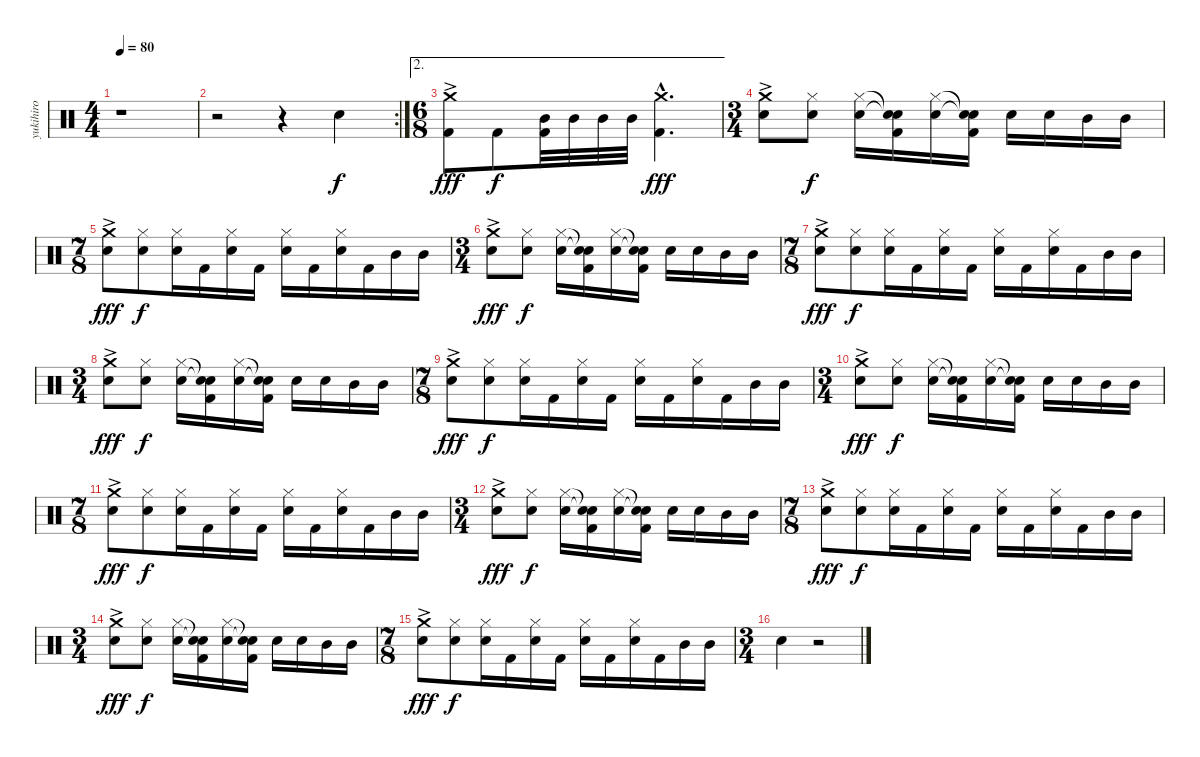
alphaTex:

\track ("yukihiro" "yukihiro") {instrument percussion}
\staff {score}
\articulation defaults
\ts (4 4)
\tempo 80
\clef neutral
\ks c
r.1{dy f} |
\rc 2
r.2 r.4 "Snare (hit) 2".4 |
\ae 2
\ts (6 8)
("Crash medium (hit)"{ac} "Kick (hit) 2").8{dy fff} "Kick (hit) 2".8{dy f} ("Mid Tom (hit)" "Kick (hit) 2").32 "Mid Tom (hit)".32 "Mid Tom (hit)".32 "Mid Tom (hit)".32 ("Crash medium (hit)"{hac} "Kick (hit) 2"{hac}).4{d dy fff} |
\ts (3 4)
("Crash medium (hit)"{ac} "Snare (hit) 2").8 ("Hi-Hat (closed)" "Snare (hit) 2").8{dy f} ("Hi-Hat (closed)" "Snare (hit) 2").16 ("Snare (hit)"{t} "Snare (hit)"{t} "Kick (hit) 2").16 ("Hi-Hat (closed)" "Snare (hit) 2").16 ("Snare (hit)"{t} "Snare (hit)"{t} "Kick (hit) 2").16 "Snare (hit) 2".16 "Snare (hit) 2".16 "Mid Tom (hit)".16 "Mid Tom (hit)".16 |
\ts (7 8)
("Crash medium (hit)"{ac} "Snare (hit) 2").8{dy fff} ("Hi-Hat (closed)" "Snare (hit) 2").8{dy f} ("Hi-Hat (closed)" "Snare (hit) 2").16 "Kick (hit) 2".16 ("Hi-Hat (closed)" "Snare (hit) 2").16 "Kick (hit) 2".16 ("Hi-Hat (closed)" "Snare (hit) 2").16 "Kick (hit) 2".16 ("Hi-Hat (closed)" "Snare (hit) 2").16 "Kick (hit) 2".16 "Mid Tom (hit)".16 "Mid Tom (hit)".16 |
\ts (3 4)
("Crash medium (hit)"{ac} "Snare (hit) 2").8{dy fff} ("Hi-Hat (closed)" "Snare (hit) 2").8{dy f} ("Hi-Hat (closed)" "Snare (hit) 2").16 ("Snare (hit)"{t} "Snare (hit)"{t} "Kick (hit) 2").16 ("Hi-Hat (closed)" "Snare (hit) 2").16 ("Snare (hit)"{t} "Snare (hit)"{t} "Kick (hit) 2").16 "Snare (hit) 2".16 "Snare (hit) 2".16 "Mid Tom (hit)".16 "Mid Tom (hit)".16 |
\ts (7 8)
("Crash medium (hit)"{ac} "Snare (hit) 2").8{dy fff} ("Hi-Hat (closed)" "Snare (hit) 2").8{dy f} ("Hi-Hat (closed)" "Snare (hit) 2").16 "Kick (hit) 2".16 ("Hi-Hat (closed)" "Snare (hit) 2").16 "Kick (hit) 2".16 ("Hi-Hat (closed)" "Snare (hit) 2").16 "Kick (hit) 2".16 ("Hi-Hat (closed)" "Snare (hit) 2").16 "Kick (hit) 2".16 "Mid Tom (hit)".16 "Mid Tom (hit)".16 |
\ts (3 4)
("Crash medium (hit)"{ac} "Snare (hit) 2").8{dy fff} ("Hi-Hat (closed)" "Snare (hit) 2").8{dy f} ("Hi-Hat (closed)" "Snare (hit) 2").16 ("Snare (hit)"{t} "Snare (hit)"{t} "Kick (hit) 2").16 ("Hi-Hat (closed)" "Snare (hit) 2").16 ("Snare (hit)"{t} "Snare (hit)"{t} "Kick (hit) 2").16 "Snare (hit) 2".16 "Snare (hit) 2".16 "Mid Tom (hit)".16 "Mid Tom (hit)".16 |
\ts (7 8)
("Crash medium (hit)"{ac} "Snare (hit) 2").8{dy fff} ("Hi-Hat (closed)" "Snare (hit) 2").8{dy f} ("Hi-Hat (closed)" "Snare (hit) 2").16 "Kick (hit) 2".16 ("Hi-Hat (closed)" "Snare (hit) 2").16 "Kick (hit) 2".16 ("Hi-Hat (closed)" "Snare (hit) 2").16 "Kick (hit) 2".16 ("Hi-Hat (closed)" "Snare (hit) 2").16 "Kick (hit) 2".16 "Mid Tom (hit)".16 "Mid Tom (hit)".16 |
\ts (3 4)
("Crash medium (hit)"{ac} "Snare (hit) 2").8{dy fff} ("Hi-Hat (closed)" "Snare (hit) 2").8{dy f} ("Hi-Hat (closed)" "Snare (hit) 2").16 ("Snare (hit)"{t} "Snare (hit)"{t} "Kick (hit) 2").16 ("Hi-Hat (closed)" "Snare (hit) 2").16 ("Snare (hit)"{t} "Snare (hit)"{t} "Kick (hit) 2").16 "Snare (hit) 2".16 "Snare (hit) 2".16 "Mid Tom (hit)".16 "Mid Tom (hit)".16 |
\ts (7 8)
("Crash medium (hit)"{ac} "Snare (hit) 2").8{dy fff} ("Hi-Hat (closed)" "Snare (hit) 2").8{dy f} ("Hi-Hat (closed)" "Snare (hit) 2").16 "Kick (hit) 2".16 ("Hi-Hat (closed)" "Snare (hit) 2").16 "Kick (hit) 2".16 ("Hi-Hat (closed)" "Snare (hit) 2").16 "Kick (hit) 2".16 ("Hi-Hat (closed)" "Snare (hit) 2").16 "Kick (hit) 2".16 "Mid Tom (hit)".16 "Mid Tom (hit)".16 |
\ts (3 4)
("Crash medium (hit)"{ac} "Snare (hit) 2").8{dy fff} ("Hi-Hat (closed)" "Snare (hit) 2").8{dy f} ("Hi-Hat (closed)" "Snare (hit) 2").16 ("Snare (hit)"{t} "Snare (hit)"{t} "Kick (hit) 2").16 ("Hi-Hat (closed)" "Snare (hit) 2").16 ("Snare (hit)"{t} "Snare (hit)"{t} "Kick (hit) 2").16 "Snare (hit) 2".16 "Snare (hit) 2".16 "Mid Tom (hit)".16 "Mid Tom (hit)".16 |
\ts (7 8)
("Crash medium (hit)"{ac} "Snare (hit) 2").8{dy fff} ("Hi-Hat (closed)" "Snare (hit) 2").8{dy f} ("Hi-Hat (closed)" "Snare (hit) 2").16 "Kick (hit) 2".16 ("Hi-Hat (closed)" "Snare (hit) 2").16 "Kick (hit) 2".16 ("Hi-Hat (closed)" "Snare (hit) 2").16 "Kick (hit) 2".16 ("Hi-Hat (closed)" "Snare (hit) 2").16 "Kick (hit) 2".16 "Mid Tom (hit)".16 "Mid Tom (hit)".16 |
\ts (3 4)
("Crash medium (hit)"{ac} "Snare (hit) 2").8{dy fff} ("Hi-Hat (closed)" "Snare (hit) 2").8{dy f} ("Hi-Hat (closed)" "Snare (hit) 2").16 ("Snare (hit)"{t} "Snare (hit)"{t} "Kick (hit) 2").16 ("Hi-Hat (closed)" "Snare (hit) 2").16 ("Snare (hit)"{t} "Snare (hit)"{t} "Kick (hit) 2").16 "Snare (hit) 2".16 "Snare (hit) 2".16 "Mid Tom (hit)".16 "Mid Tom (hit)".16 |
\ts (7 8)
("Crash medium (hit)"{ac} "Snare (hit) 2").8{dy fff} ("Hi-Hat (closed)" "Snare (hit) 2").8{dy f} ("Hi-Hat (closed)" "Snare (hit) 2").16 "Kick (hit) 2".16 ("Hi-Hat (closed)" "Snare (hit) 2").16 "Kick (hit) 2".16 ("Hi-Hat (closed)" "Snare (hit) 2").16 "Kick (hit) 2".16 ("Hi-Hat (closed)" "Snare (hit) 2").16 "Kick (hit) 2".16 "Mid Tom (hit)".16 "Mid Tom (hit)".16 |
\ts (3 4)
"Snare (hit) 2".4 r.2
